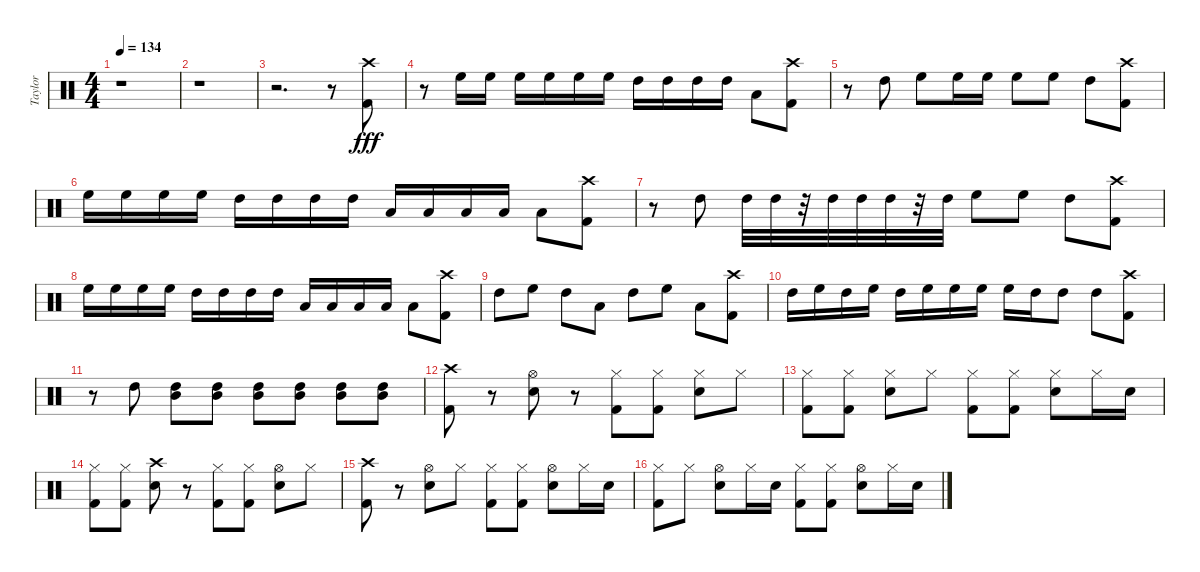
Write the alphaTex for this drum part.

\track ("Taylor" "Taylor") {instrument percussion}
\staff {score}
\articulation defaults
\ts (4 4)
\tempo 134
\clef neutral
\ks c
r.1{dy fff} |
r.1 |
r.2{d} r.8 ("Crash high (hit)" "Kick (hit) 2").8 |
r.8 "High Floor Tom (hit)".16 "High Floor Tom (hit)".16 "High Floor Tom (hit)".16 "High Floor Tom (hit)".16 "High Floor Tom (hit)".16 "High Floor Tom (hit)".16 "High Tom (hit)".16 "High Tom (hit)".16 "High Tom (hit)".16 "High Tom (hit)".16 "Low Tom (hit)".8 ("Kick (hit) 2" "Crash high (hit)").8 |
r.8 "High Tom (hit)".8 "High Floor Tom (hit)".8 "High Floor Tom (hit)".16 "High Floor Tom (hit)".16 "High Floor Tom (hit)".8 "High Floor Tom (hit)".8 "High Tom (hit)".8 ("Kick (hit) 2" "Crash high (hit)").8 |
"High Floor Tom (hit)".16 "High Floor Tom (hit)".16 "High Floor Tom (hit)".16 "High Floor Tom (hit)".16 "High Tom (hit)".16 "High Tom (hit)".16 "High Tom (hit)".16 "High Tom (hit)".16 "Low Tom (hit)".16 "Low Tom (hit)".16 "Low Tom (hit)".16 "Low Tom (hit)".16 "Low Tom (hit)".8 ("Crash high (hit)" "Kick (hit) 2").8 |
r.8 "High Tom (hit)".8 "High Tom (hit)".32 "High Tom (hit)".32 r.32 "High Tom (hit)".32 "High Tom (hit)".32 "High Tom (hit)".32 r.32 "High Tom (hit)".32 "High Floor Tom (hit)".8 "High Floor Tom (hit)".8 "High Tom (hit)".8 ("Kick (hit) 2" "Crash high (hit)").8 |
"High Floor Tom (hit)".16 "High Floor Tom (hit)".16 "High Floor Tom (hit)".16 "High Floor Tom (hit)".16 "High Tom (hit)".16 "High Tom (hit)".16 "High Tom (hit)".16 "High Tom (hit)".16 "Low Tom (hit)".16 "Low Tom (hit)".16 "Low Tom (hit)".16 "Low Tom (hit)".16 "Low Tom (hit)".8 ("Kick (hit) 2" "Crash high (hit)").8 |
"High Tom (hit)".8 "High Floor Tom (hit)".8 "High Tom (hit)".8 "Low Tom (hit)".8 "High Tom (hit)".8 "High Floor Tom (hit)".8 "Low Tom (hit)".8 ("Kick (hit) 2" "Crash high (hit)").8 |
"High Tom (hit)".16 "High Floor Tom (hit)".16 "High Tom (hit)".16 "High Floor Tom (hit)".16 "High Tom (hit)".16 "High Floor Tom (hit)".16 "High Floor Tom (hit)".16 "High Floor Tom (hit)".16 "High Floor Tom (hit)".16 "High Tom (hit)".16 "High Tom (hit)".8 "High Tom (hit)".8 ("Kick (hit) 2" "Crash high (hit)").8 |
r.8 "High Tom (hit)".8 ("High Tom (hit)" "Mid Tom (hit)").8 ("High Tom (hit)" "Mid Tom (hit)").8 ("High Tom (hit)" "Mid Tom (hit)").8 ("High Tom (hit)" "Mid Tom (hit)").8 ("High Tom (hit)" "Mid Tom (hit)").8 ("High Tom (hit)" "Mid Tom (hit)").8 |
("Crash high (hit)" "Kick (hit) 2").8 r.8 ("Snare (hit) 2" "Hi-Hat (open)").8 r.8 ("Kick (hit) 2" "Hi-Hat (closed)").8 ("Kick (hit) 2" "Hi-Hat (closed)").8 ("Snare (hit) 2" "Hi-Hat (closed)").8 "Hi-Hat (closed)".8 |
("Hi-Hat (closed)" "Kick (hit) 2").8 ("Hi-Hat (closed)" "Kick (hit) 2").8 ("Hi-Hat (closed)" "Snare (hit) 2").8 "Hi-Hat (closed)".8 ("Hi-Hat (closed)" "Kick (hit) 2").8 ("Hi-Hat (closed)" "Kick (hit) 2").8 ("Hi-Hat (closed)" "Snare (hit) 2").8 "Hi-Hat (closed)".16 "Snare (hit) 2".16 |
("Kick (hit) 2" "Hi-Hat (closed)").8 ("Kick (hit) 2" "Hi-Hat (closed)").8 ("Snare (hit) 2" "Crash high (hit)").8 r.8 ("Kick (hit) 2" "Hi-Hat (closed)").8 ("Kick (hit) 2" "Hi-Hat (closed)").8 ("Snare (hit) 2" "Hi-Hat (open)").8 "Hi-Hat (closed)".8 |
("Kick (hit) 2" "Crash high (hit)").8 r.8 ("Snare (hit) 2" "Hi-Hat (open)").8 "Hi-Hat (closed)".8 ("Kick (hit) 2" "Hi-Hat (closed)").8 ("Kick (hit) 2" "Hi-Hat (closed)").8 ("Snare (hit) 2" "Hi-Hat (open)").8 "Hi-Hat (closed)".16 "Snare (hit) 2".16 |
("Kick (hit) 2" "Hi-Hat (closed)").8 "Hi-Hat (closed)".8 ("Snare (hit) 2" "Hi-Hat (open)").8 "Hi-Hat (closed)".16 "Snare (hit) 2".16 ("Kick (hit) 2" "Hi-Hat (closed)").8 ("Kick (hit) 2" "Hi-Hat (closed)").8 ("Snare (hit) 2" "Hi-Hat (open)").8 "Hi-Hat (closed)".16 "Snare (hit) 2".16
